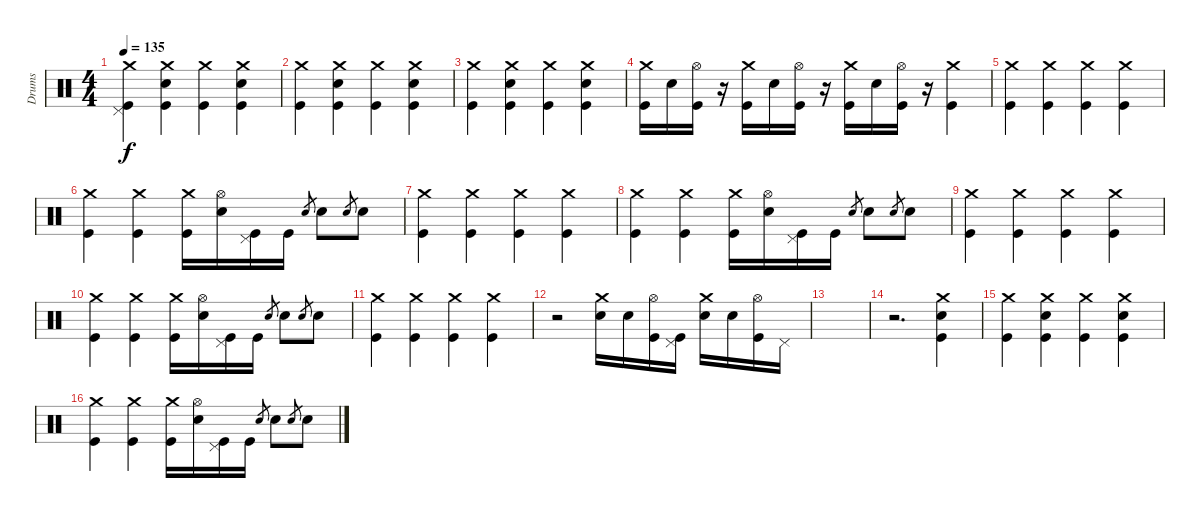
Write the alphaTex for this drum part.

\track ("Drums" "Drums") {instrument percussion}
\staff {score}
\articulation defaults
\ts (4 4)
\tempo 135
\clef neutral
\ks c
("Crash medium (hit)" "Pedal Hi-Hat (hit)" "Kick (hit)").4{dy f} ("Crash medium (hit)" "Snare (hit) 2" "Kick (hit)").4 ("Crash medium (hit)" "Kick (hit)").4 ("Crash medium (hit)" "Snare (hit) 2" "Kick (hit)").4 |
("Crash medium (hit)" "Kick (hit)").4 ("Crash medium (hit)" "Snare (hit) 2" "Kick (hit)").4 ("Crash medium (hit)" "Kick (hit)").4 ("Crash medium (hit)" "Snare (hit) 2" "Kick (hit)").4 |
("Crash medium (hit)" "Kick (hit)").4 ("Crash medium (hit)" "Snare (hit) 2" "Kick (hit)").4 ("Crash medium (hit)" "Kick (hit)").4 ("Crash medium (hit)" "Snare (hit) 2" "Kick (hit)").4 |
("Crash medium (hit)" "Kick (hit)").16 "Snare (hit) 2".16 ("Hi-Hat (open)" "Kick (hit)").16 r.16 ("Crash medium (hit)" "Kick (hit)").16 "Snare (hit) 2".16 ("Hi-Hat (open)" "Kick (hit)").16 r.16 ("Crash medium (hit)" "Kick (hit)").16 "Snare (hit) 2".16 ("Hi-Hat (open)" "Kick (hit)").16 r.16 ("Crash medium (hit)" "Kick (hit)").4 |
("Crash medium (hit)" "Kick (hit)").4 ("Crash medium (hit)" "Kick (hit)").4 ("Crash medium (hit)" "Kick (hit)").4 ("Crash medium (hit)" "Kick (hit)").4 |
("Crash medium (hit)" "Kick (hit)").4 ("Crash medium (hit)" "Kick (hit)").4 ("Crash medium (hit)" "Kick (hit)").16 ("Hi-Hat (open)" "Snare (hit) 2").16 ("Pedal Hi-Hat (hit)" "Kick (hit)").16 "Kick (hit)".16 "Snare (hit) 2".8{gr} "Snare (hit) 2".8 "Snare (hit) 2".8{gr} "Snare (hit) 2".8 |
("Crash medium (hit)" "Kick (hit)").4 ("Crash medium (hit)" "Kick (hit)").4 ("Crash medium (hit)" "Kick (hit)").4 ("Crash medium (hit)" "Kick (hit)").4 |
("Crash medium (hit)" "Kick (hit)").4 ("Crash medium (hit)" "Kick (hit)").4 ("Crash medium (hit)" "Kick (hit)").16 ("Hi-Hat (open)" "Snare (hit) 2").16 ("Pedal Hi-Hat (hit)" "Kick (hit)").16 "Kick (hit)".16 "Snare (hit) 2".8{gr} "Snare (hit) 2".8 "Snare (hit) 2".8{gr} "Snare (hit) 2".8 |
("Crash medium (hit)" "Kick (hit)").4 ("Crash medium (hit)" "Kick (hit)").4 ("Crash medium (hit)" "Kick (hit)").4 ("Crash medium (hit)" "Kick (hit)").4 |
("Crash medium (hit)" "Kick (hit)").4 ("Crash medium (hit)" "Kick (hit)").4 ("Crash medium (hit)" "Kick (hit)").16 ("Hi-Hat (open)" "Snare (hit) 2").16 ("Pedal Hi-Hat (hit)" "Kick (hit)").16 "Kick (hit)".16 "Snare (hit) 2".8{gr} "Snare (hit) 2".8 "Snare (hit) 2".8{gr} "Snare (hit) 2".8 |
("Crash medium (hit)" "Kick (hit)").4 ("Crash medium (hit)" "Kick (hit)").4 ("Crash medium (hit)" "Kick (hit)").4 ("Crash medium (hit)" "Kick (hit)").4 |
r.2 ("Crash medium (hit)" "Snare (hit) 2").16 "Snare (hit) 2".16 ("Hi-Hat (open)" "Kick (hit)").16 ("Pedal Hi-Hat (hit)" "Kick (hit)").16 ("Crash medium (hit)" "Snare (hit) 2").16 "Snare (hit) 2".16 ("Hi-Hat (open)" "Kick (hit)").16 "Pedal Hi-Hat (hit)".16 |
|
r.2{d} ("Crash medium (hit)" "Snare (hit) 2" "Kick (hit)").4 |
("Crash medium (hit)" "Kick (hit)").4 ("Crash medium (hit)" "Snare (hit) 2" "Kick (hit)").4 ("Crash medium (hit)" "Kick (hit)").4 ("Crash medium (hit)" "Snare (hit) 2" "Kick (hit)").4 |
("Crash medium (hit)" "Kick (hit)").4 ("Crash medium (hit)" "Kick (hit)").4 ("Crash medium (hit)" "Kick (hit)").16 ("Hi-Hat (open)" "Snare (hit) 2").16 ("Pedal Hi-Hat (hit)" "Kick (hit)").16 "Kick (hit)".16 "Snare (hit) 2".8{gr} "Snare (hit) 2".8 "Snare (hit) 2".8{gr} "Snare (hit) 2".8
